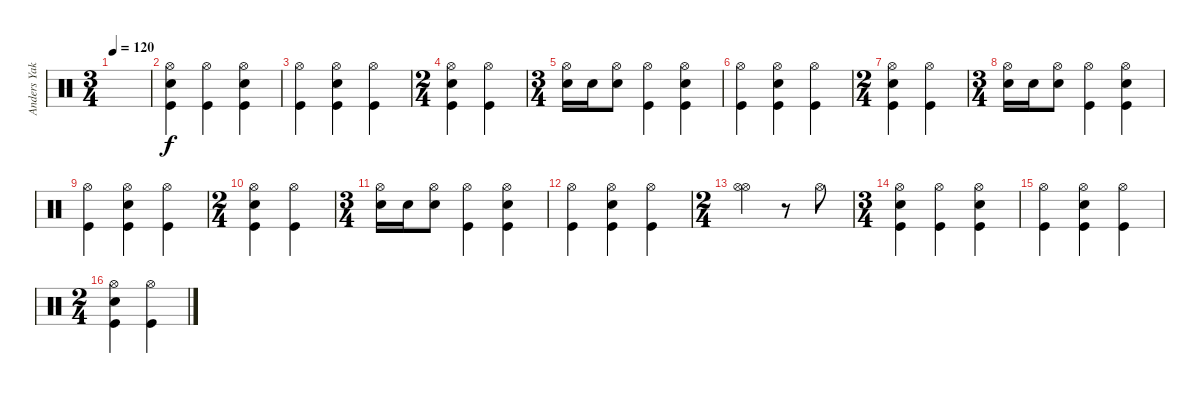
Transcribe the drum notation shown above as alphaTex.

\track ("Anders Yakobson" "Anders Yak") {instrument percussion}
\staff {score}
\articulation defaults
\ts (3 4)
\tempo 120
\clef neutral
\ks c
|
("Hi-Hat (open)" "Snare (hit) 2" "Kick (hit)").4 ("Hi-Hat (open)" "Kick (hit)").4 ("Hi-Hat (open)" "Snare (hit) 2" "Kick (hit)").4 |
("Hi-Hat (open)" "Kick (hit)").4 ("Hi-Hat (open)" "Snare (hit) 2" "Kick (hit)").4 ("Hi-Hat (open)" "Kick (hit)").4 |
\ts (2 4)
("Hi-Hat (open)" "Snare (hit) 2" "Kick (hit)").4 ("Hi-Hat (open)" "Kick (hit)").4 |
\ts (3 4)
("Hi-Hat (open)" "Snare (hit) 2").16 "Snare (hit) 2".16 ("Hi-Hat (open)" "Snare (hit) 2").8 ("Hi-Hat (open)" "Kick (hit)").4 ("Snare (hit) 2" "Kick (hit)" "Hi-Hat (open)").4 |
("Hi-Hat (open)" "Kick (hit)").4 ("Hi-Hat (open)" "Snare (hit) 2" "Kick (hit)").4 ("Hi-Hat (open)" "Kick (hit)").4 |
\ts (2 4)
("Hi-Hat (open)" "Snare (hit) 2" "Kick (hit)").4 ("Hi-Hat (open)" "Kick (hit)").4 |
\ts (3 4)
("Hi-Hat (open)" "Snare (hit) 2").16 "Snare (hit) 2".16 ("Hi-Hat (open)" "Snare (hit) 2").8 ("Hi-Hat (open)" "Kick (hit)").4 ("Snare (hit) 2" "Kick (hit)" "Hi-Hat (open)").4 |
("Hi-Hat (open)" "Kick (hit)").4 ("Hi-Hat (open)" "Snare (hit) 2" "Kick (hit)").4 ("Hi-Hat (open)" "Kick (hit)").4 |
\ts (2 4)
("Hi-Hat (open)" "Snare (hit) 2" "Kick (hit)").4 ("Hi-Hat (open)" "Kick (hit)").4 |
\ts (3 4)
("Hi-Hat (open)" "Snare (hit) 2").16 "Snare (hit) 2".16 ("Hi-Hat (open)" "Snare (hit) 2").8 ("Hi-Hat (open)" "Kick (hit)").4 ("Snare (hit) 2" "Kick (hit)" "Hi-Hat (open)").4 |
("Hi-Hat (open)" "Kick (hit)").4 ("Hi-Hat (open)" "Snare (hit) 2" "Kick (hit)").4 ("Hi-Hat (open)" "Kick (hit)").4 |
\ts (2 4)
("Hi-Hat (open)" "Hi-Hat (open)").4 r.8 "Hi-Hat (open)".8 |
\ts (3 4)
("Hi-Hat (open)" "Snare (hit) 2" "Kick (hit)").4 ("Hi-Hat (open)" "Kick (hit)").4 ("Hi-Hat (open)" "Snare (hit) 2" "Kick (hit)").4 |
("Hi-Hat (open)" "Kick (hit)").4 ("Hi-Hat (open)" "Snare (hit) 2" "Kick (hit)").4 ("Hi-Hat (open)" "Kick (hit)").4 |
\ts (2 4)
("Hi-Hat (open)" "Snare (hit) 2" "Kick (hit)").4 ("Hi-Hat (open)" "Kick (hit)").4
